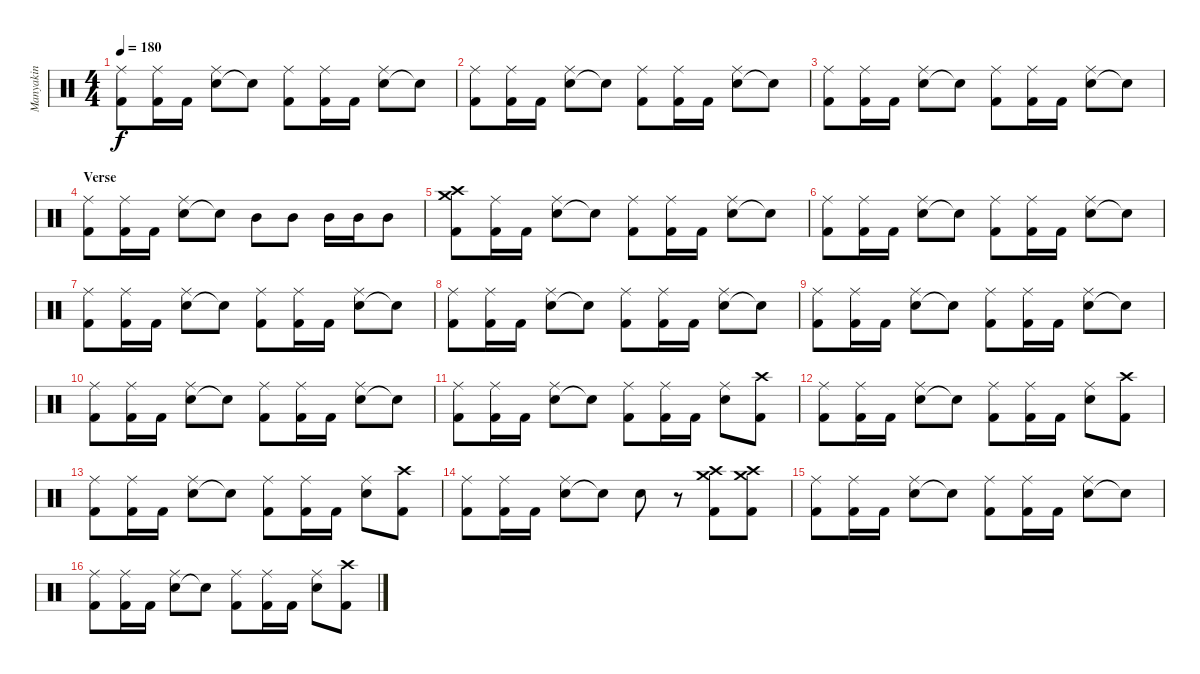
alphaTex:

\track ("Manyakin" "Manyakin") {instrument percussion}
\staff {score}
\articulation defaults
\ts (4 4)
\tempo 180
\clef neutral
\ks c
("Kick (hit) 2" "Ride (middle)").8{dy f} ("Kick (hit) 2" "Ride (middle)").16 "Kick (hit) 2".16 ("Snare (hit) 2" "Ride (middle)").8 "Snare (hit)"{t}.8 ("Kick (hit) 2" "Ride (middle)").8 ("Kick (hit) 2" "Ride (middle)").16 "Kick (hit) 2".16 ("Snare (hit) 2" "Ride (middle)").8 "Snare (hit) 2"{t}.8 |
("Kick (hit) 2" "Ride (middle)").8 ("Kick (hit) 2" "Ride (middle)").16 "Kick (hit) 2".16 ("Snare (hit) 2" "Ride (middle)").8 "Snare (hit)"{t}.8 ("Kick (hit) 2" "Ride (middle)").8 ("Kick (hit) 2" "Ride (middle)").16 "Kick (hit) 2".16 ("Snare (hit) 2" "Ride (middle)").8 "Snare (hit) 2"{t}.8 |
("Kick (hit) 2" "Ride (middle)").8 ("Kick (hit) 2" "Ride (middle)").16 "Kick (hit) 2".16 ("Snare (hit) 2" "Ride (middle)").8 "Snare (hit)"{t}.8 ("Kick (hit) 2" "Ride (middle)").8 ("Kick (hit) 2" "Ride (middle)").16 "Kick (hit) 2".16 ("Snare (hit) 2" "Ride (middle)").8 "Snare (hit) 2"{t}.8 |
\section ("" "Verse")
("Kick (hit) 2" "Ride (middle)").8 ("Kick (hit) 2" "Ride (middle)").16 "Kick (hit) 2".16 ("Snare (hit) 2" "Ride (middle)").8 "Snare (hit)"{t}.8 "Mid Tom (hit)".8 "Mid Tom (hit)".8 "Mid Tom (hit)".16 "Mid Tom (hit)".16 "Mid Tom (hit)".8 |
("Kick (hit) 2" "Crash high (hit)" "Crash medium (hit)").8 ("Kick (hit) 2" "Ride (middle)").16 "Kick (hit) 2".16 ("Snare (hit) 2" "Ride (middle)").8 "Snare (hit)"{t}.8 ("Kick (hit) 2" "Ride (middle)").8 ("Kick (hit) 2" "Ride (middle)").16 "Kick (hit) 2".16 ("Snare (hit) 2" "Ride (middle)").8 "Snare (hit)"{t}.8 |
("Kick (hit) 2" "Ride (middle)").8 ("Kick (hit) 2" "Ride (middle)").16 "Kick (hit) 2".16 ("Snare (hit) 2" "Ride (middle)").8 "Snare (hit)"{t}.8 ("Kick (hit) 2" "Ride (middle)").8 ("Kick (hit) 2" "Ride (middle)").16 "Kick (hit) 2".16 ("Snare (hit) 2" "Ride (middle)").8 "Snare (hit) 2"{t}.8 |
("Kick (hit) 2" "Ride (middle)").8 ("Kick (hit) 2" "Ride (middle)").16 "Kick (hit) 2".16 ("Snare (hit) 2" "Ride (middle)").8 "Snare (hit)"{t}.8 ("Kick (hit) 2" "Ride (middle)").8 ("Kick (hit) 2" "Ride (middle)").16 "Kick (hit) 2".16 ("Snare (hit) 2" "Ride (middle)").8 "Snare (hit) 2"{t}.8 |
("Kick (hit) 2" "Ride (middle)").8 ("Kick (hit) 2" "Ride (middle)").16 "Kick (hit) 2".16 ("Snare (hit) 2" "Ride (middle)").8 "Snare (hit)"{t}.8 ("Kick (hit) 2" "Ride (middle)").8 ("Kick (hit) 2" "Ride (middle)").16 "Kick (hit) 2".16 ("Snare (hit) 2" "Ride (middle)").8 "Snare (hit) 2"{t}.8 |
("Kick (hit) 2" "Ride (middle)").8 ("Kick (hit) 2" "Ride (middle)").16 "Kick (hit) 2".16 ("Snare (hit) 2" "Ride (middle)").8 "Snare (hit)"{t}.8 ("Kick (hit) 2" "Ride (middle)").8 ("Kick (hit) 2" "Ride (middle)").16 "Kick (hit) 2".16 ("Snare (hit) 2" "Ride (middle)").8 "Snare (hit) 2"{t}.8 |
("Kick (hit) 2" "Ride (middle)").8 ("Kick (hit) 2" "Ride (middle)").16 "Kick (hit) 2".16 ("Snare (hit) 2" "Ride (middle)").8 "Snare (hit)"{t}.8 ("Kick (hit) 2" "Ride (middle)").8 ("Kick (hit) 2" "Ride (middle)").16 "Kick (hit) 2".16 ("Snare (hit) 2" "Ride (middle)").8 "Snare (hit) 2"{t}.8 |
("Kick (hit) 2" "Ride (middle)").8 ("Kick (hit) 2" "Ride (middle)").16 "Kick (hit) 2".16 ("Snare (hit) 2" "Ride (middle)").8 "Snare (hit)"{t}.8 ("Kick (hit) 2" "Ride (middle)").8 ("Kick (hit) 2" "Ride (middle)").16 "Kick (hit) 2".16 ("Snare (hit) 2" "Ride (middle)").8 ("Kick (hit) 2" "Crash high (hit)").8 |
("Kick (hit) 2" "Ride (middle)").8 ("Kick (hit) 2" "Ride (middle)").16 "Kick (hit) 2".16 ("Snare (hit) 2" "Ride (middle)").8 "Snare (hit)"{t}.8 ("Kick (hit) 2" "Ride (middle)").8 ("Kick (hit) 2" "Ride (middle)").16 "Kick (hit) 2".16 ("Snare (hit) 2" "Ride (middle)").8 ("Kick (hit) 2" "Crash high (hit)").8 |
("Kick (hit) 2" "Ride (middle)").8 ("Kick (hit) 2" "Ride (middle)").16 "Kick (hit) 2".16 ("Snare (hit) 2" "Ride (middle)").8 "Snare (hit)"{t}.8 ("Kick (hit) 2" "Ride (middle)").8 ("Kick (hit) 2" "Ride (middle)").16 "Kick (hit) 2".16 ("Snare (hit) 2" "Ride (middle)").8 ("Kick (hit) 2" "Crash high (hit)").8 |
("Kick (hit) 2" "Ride (middle)").8 ("Kick (hit) 2" "Ride (middle)").16 "Kick (hit) 2".16 ("Snare (hit) 2" "Ride (middle)").8 "Snare (hit)"{t}.8 "Snare (hit) 2".8 r.8 ("Kick (hit) 2" "Crash high (hit)" "Crash medium (hit)").8 ("Kick (hit) 2" "Crash high (hit)" "Crash medium (hit)").8 |
("Kick (hit) 2" "Ride (middle)").8 ("Kick (hit) 2" "Ride (middle)").16 "Kick (hit) 2".16 ("Snare (hit) 2" "Ride (middle)").8 "Snare (hit)"{t}.8 ("Kick (hit) 2" "Ride (middle)").8 ("Kick (hit) 2" "Ride (middle)").16 "Kick (hit) 2".16 ("Snare (hit) 2" "Ride (middle)").8 "Snare (hit) 2"{t}.8 |
("Kick (hit) 2" "Ride (middle)").8 ("Kick (hit) 2" "Ride (middle)").16 "Kick (hit) 2".16 ("Snare (hit) 2" "Ride (middle)").8 "Snare (hit)"{t}.8 ("Kick (hit) 2" "Ride (middle)").8 ("Kick (hit) 2" "Ride (middle)").16 "Kick (hit) 2".16 ("Snare (hit) 2" "Ride (middle)").8 ("Kick (hit) 2" "Crash high (hit)").8
